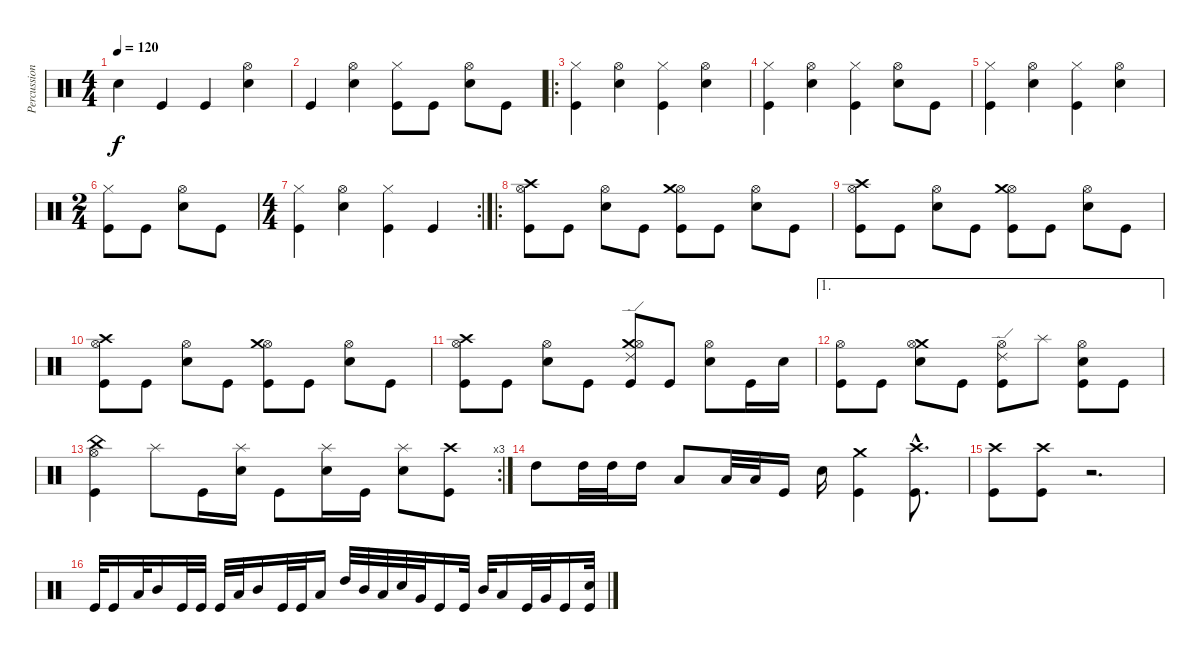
\track ("Percussions" "Percussion") {instrument percussion}
\staff {score}
\articulation defaults
\ts (4 4)
\tempo 120
\clef neutral
\ks c "Snare (hit) 2".4{dy f} "Kick (hit)".4 "Kick (hit)".4
("Snare (hit) 2" "Hi-Hat (open)").4 |
"Kick (hit)".4 ("Snare (hit) 2" "Hi-Hat (open)").4 ("Kick (hit)" "Hi-Hat (closed)").8 "Kick (hit)".8 ("Snare (hit) 2" "Hi-Hat (open)").8 "Kick (hit)".8 |
\ro
("Hi-Hat (closed)" "Kick (hit)").4 ("Snare (hit) 2" "Hi-Hat (open)").4 ("Hi-Hat (closed)" "Kick (hit)").4 ("Snare (hit) 2" "Hi-Hat (open)").4 |
("Hi-Hat (closed)" "Kick (hit)").4 ("Snare (hit) 2" "Hi-Hat (open)").4 ("Kick (hit)" "Hi-Hat (closed)").4 ("Snare (hit) 2" "Hi-Hat (open)").8 "Kick (hit)".8 |
("Hi-Hat (closed)" "Kick (hit)").4 ("Snare (hit) 2" "Hi-Hat (open)").4 ("Hi-Hat (closed)" "Kick (hit)").4 ("Snare (hit) 2" "Hi-Hat (open)").4 |
\ts (2 4)
("Kick (hit)" "Hi-Hat (closed)").8 "Kick (hit)".8 ("Snare (hit) 2" "Hi-Hat (open)").8 "Kick (hit)".8 |
\rc 2
\ts (4 4)
("Kick (hit)" "Hi-Hat (closed)").4 ("Snare (hit) 2" "Hi-Hat (open)").4 ("Kick (hit)" "Hi-Hat (closed)").4 "Kick (hit)".4 |
\ro
("Crash high (hit)" "Kick (hit)" "Hi-Hat (open)").8 "Kick (hit)".8 ("Snare (hit) 2" "Hi-Hat (open)").8 "Kick (hit)".8 ("Hi-Hat (open)" "Crash medium (hit)" "Kick (hit)").8 "Kick (hit)".8 ("Snare (hit) 2" "Hi-Hat (open)").8 "Kick (hit)".8 |
("Crash high (hit)" "Kick (hit)" "Hi-Hat (open)").8 "Kick (hit)".8 ("Snare (hit) 2" "Hi-Hat (open)").8 "Kick (hit)".8 ("Hi-Hat (open)" "Crash medium (hit)" "Kick (hit)").8 "Kick (hit)".8 ("Snare (hit) 2" "Hi-Hat (open)").8 "Kick (hit)".8 |
("Crash high (hit)" "Kick (hit)" "Hi-Hat (open)").8 "Kick (hit)".8 ("Snare (hit) 2" "Hi-Hat (open)").8 "Kick (hit)".8 ("Hi-Hat (open)" "Crash medium (hit)" "Kick (hit)").8 "Kick (hit)".8 ("Snare (hit) 2" "Hi-Hat (open)").8 "Kick (hit)".8 |
("Hi-Hat (open)" "Crash high (hit)" "Kick (hit)").8 "Kick (hit)".8 ("Snare (hit) 2" "Hi-Hat (open)").8 "Kick (hit)".8 ("Kick (hit)" "Crash medium (hit)" "Ride (edge) 2" "Hi-Hat (open)").8 "Kick (hit)".8 ("Snare (hit) 2" "Hi-Hat (open)").8 "Kick (hit)".16 "Snare (hit) 2".16 |
\ae 1
("Hi-Hat (open)" "Kick (hit)").8 "Kick (hit)".8 ("Crash medium (hit)" "Hi-Hat (open)" "Snare (hit) 2").8 "Kick (hit)".8 ("Kick (hit)" "Ride (edge) 2" "Hi-Hat (open)").8 "Splash (hit)".8 ("Kick (hit)" "Hi-Hat (open)" "Snare (hit) 2").8 "Kick (hit)".8 |
\rc 3
("China (hit)" "Kick (hit)" "Hi-Hat (open)").4 "Splash (hit)".8 "Kick (hit)".16 ("Snare (hit) 2" "Splash (hit)").16 "Kick (hit)".8 ("Splash (hit)" "Snare (hit) 2").16 "Kick (hit)".16 ("Splash (hit)" "Snare (hit) 2").8 ("Kick (hit)" "Crash high (hit)").8 |
"High Tom (hit)".8 "High Tom (hit)".32 "High Tom (hit)".32 "High Tom (hit)".16 "Low Tom (hit)".8 "Low Tom (hit)".32 "Low Tom (hit)".32 "Kick (hit)".16 "Snare (hit) 2".16 ("Crash medium (hit)" "Kick (hit)").4 ("Crash high (hit)"{hac} "Kick (hit)"{hac}).8{d} |
("Crash high (hit)" "Kick (hit)").8 ("Crash high (hit)" "Kick (hit)").8 r.2{d} |
"Kick (hit)".32 "Kick (hit)".16 "Low Tom (hit)".32 "Mid Tom (hit)".16 "Kick (hit)".32 "Kick (hit)".32 "Kick (hit)".32 "Low Tom (hit)".32 "Mid Tom (hit)".16 "Kick (hit)".32 "Kick (hit)".32 "Low Tom (hit)".16 "High Tom (hit)".32 "Mid Tom (hit)".32 "Low Tom (hit)".32 "Snare (hit) 2".32 "Very Low Tom (hit)".32 "Kick (hit)".16 "Kick (hit)".32 "Mid Tom (hit)".32 "Low Tom (hit)".16 "Kick (hit)".32 "Very Low Tom (hit)".32 "Kick (hit)".16 ("Kick (hit)" "Snare (hit) 2").32
